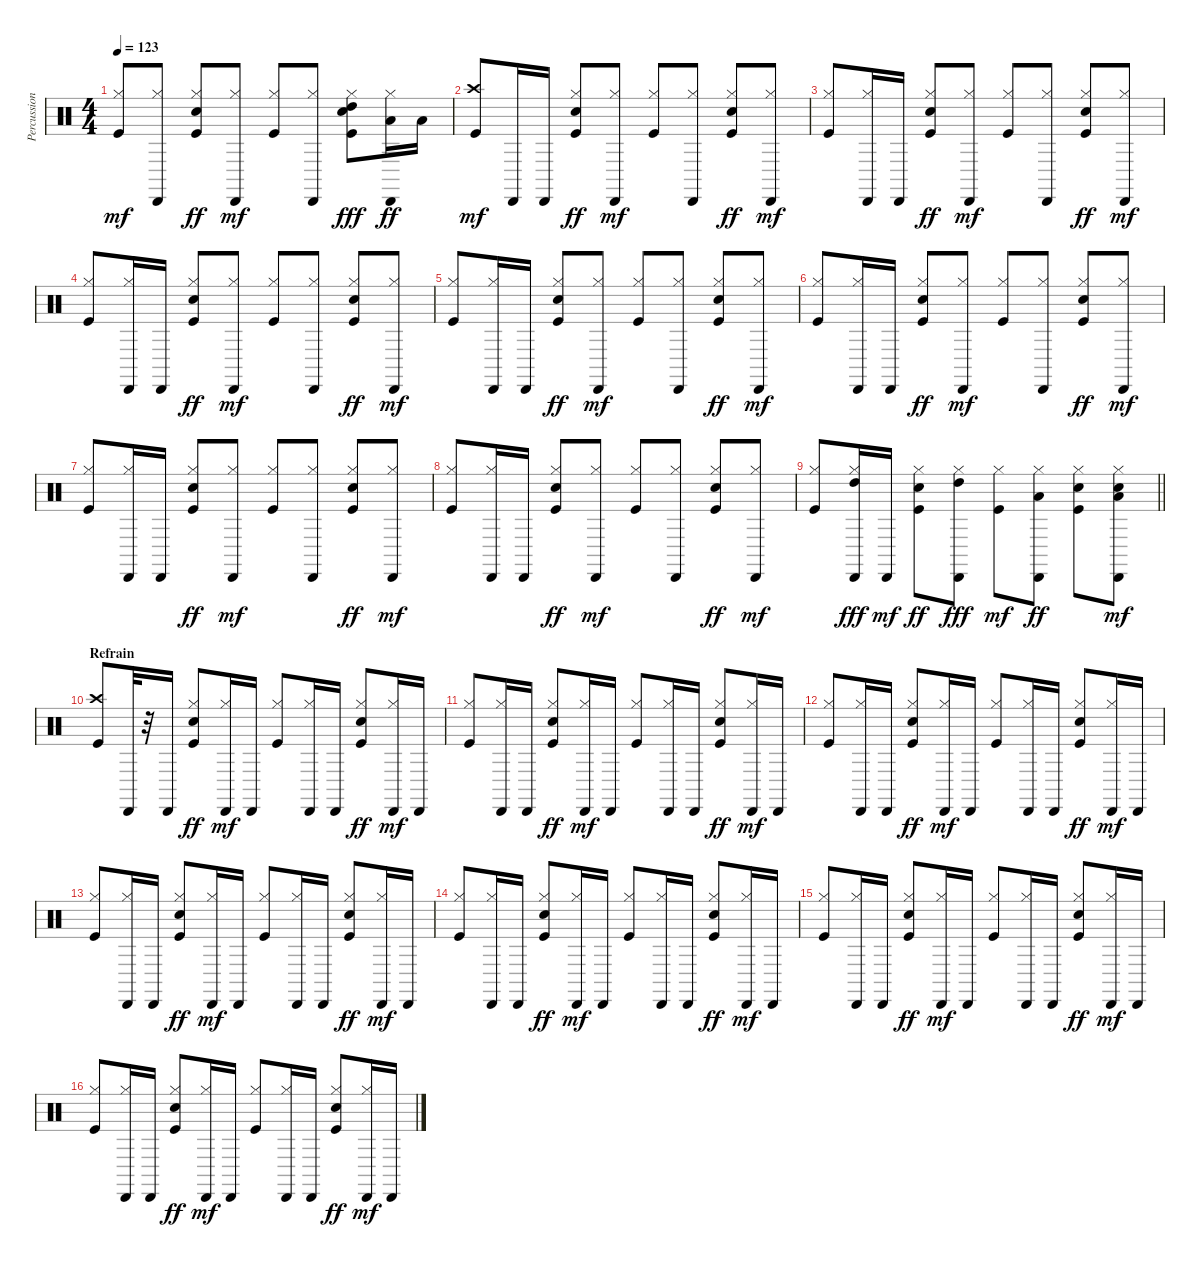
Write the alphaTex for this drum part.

\track ("Percussions" "Percussion") {instrument percussion}
\staff {score}
\articulation defaults
\ts (4 4)
\tempo 123
\clef neutral
\ks c
("Kick (hit)" "Hi-Hat (closed)").8{dy mf} ("Hi-Hat (closed)" "Cabasa (hit)").8 ("Kick (hit)" "Snare (hit) 2" "Hi-Hat (closed)").8{dy ff} ("Hi-Hat (closed)" "Cabasa (hit)").8{dy mf} ("Kick (hit)" "Hi-Hat (closed)").8 ("Hi-Hat (closed)" "Cabasa (hit)").8 ("Kick (hit)" "Snare (hit) 2" "Hi-Hat (closed)" "High Tom (hit)").8{dy fff} ("Hi-Hat (closed)" "Cabasa (hit)" "Low Tom (hit)").16{dy ff} "Low Tom (hit)".16 |
("Kick (hit)" "Crash high (hit)").8{dy mf} "Cabasa (hit)".16 "Cabasa (hit)".16 ("Kick (hit)" "Snare (hit) 2" "Hi-Hat (closed)").8{dy ff} ("Hi-Hat (closed)" "Cabasa (hit)").8{dy mf} ("Kick (hit)" "Hi-Hat (closed)").8 ("Hi-Hat (closed)" "Cabasa (hit)").8 ("Kick (hit)" "Snare (hit) 2" "Hi-Hat (closed)").8{dy ff} ("Hi-Hat (closed)" "Cabasa (hit)").8{dy mf} |
("Kick (hit)" "Hi-Hat (closed)").8 ("Hi-Hat (closed)" "Cabasa (hit)").16 "Cabasa (hit)".16 ("Kick (hit)" "Snare (hit) 2" "Hi-Hat (closed)").8{dy ff} ("Hi-Hat (closed)" "Cabasa (hit)").8{dy mf} ("Kick (hit)" "Hi-Hat (closed)").8 ("Hi-Hat (closed)" "Cabasa (hit)").8 ("Kick (hit)" "Snare (hit) 2" "Hi-Hat (closed)").8{dy ff} ("Hi-Hat (closed)" "Cabasa (hit)").8{dy mf} |
("Kick (hit)" "Hi-Hat (closed)").8 ("Hi-Hat (closed)" "Cabasa (hit)").16 "Cabasa (hit)".16 ("Kick (hit)" "Snare (hit) 2" "Hi-Hat (closed)").8{dy ff} ("Hi-Hat (closed)" "Cabasa (hit)").8{dy mf} ("Kick (hit)" "Hi-Hat (closed)").8 ("Hi-Hat (closed)" "Cabasa (hit)").8 ("Kick (hit)" "Snare (hit) 2" "Hi-Hat (closed)").8{dy ff} ("Hi-Hat (closed)" "Cabasa (hit)").8{dy mf} |
("Kick (hit)" "Hi-Hat (closed)").8 ("Hi-Hat (closed)" "Cabasa (hit)").16 "Cabasa (hit)".16 ("Kick (hit)" "Snare (hit) 2" "Hi-Hat (closed)").8{dy ff} ("Hi-Hat (closed)" "Cabasa (hit)").8{dy mf} ("Kick (hit)" "Hi-Hat (closed)").8 ("Hi-Hat (closed)" "Cabasa (hit)").8 ("Kick (hit)" "Snare (hit) 2" "Hi-Hat (closed)").8{dy ff} ("Hi-Hat (closed)" "Cabasa (hit)").8{dy mf} |
("Kick (hit)" "Hi-Hat (closed)").8 ("Hi-Hat (closed)" "Cabasa (hit)").16 "Cabasa (hit)".16 ("Kick (hit)" "Snare (hit) 2" "Hi-Hat (closed)").8{dy ff} ("Hi-Hat (closed)" "Cabasa (hit)").8{dy mf} ("Kick (hit)" "Hi-Hat (closed)").8 ("Hi-Hat (closed)" "Cabasa (hit)").8 ("Kick (hit)" "Snare (hit) 2" "Hi-Hat (closed)").8{dy ff} ("Hi-Hat (closed)" "Cabasa (hit)").8{dy mf} |
("Kick (hit)" "Hi-Hat (closed)").8 ("Hi-Hat (closed)" "Cabasa (hit)").16 "Cabasa (hit)".16 ("Kick (hit)" "Snare (hit) 2" "Hi-Hat (closed)").8{dy ff} ("Hi-Hat (closed)" "Cabasa (hit)").8{dy mf} ("Kick (hit)" "Hi-Hat (closed)").8 ("Hi-Hat (closed)" "Cabasa (hit)").8 ("Kick (hit)" "Snare (hit) 2" "Hi-Hat (closed)").8{dy ff} ("Hi-Hat (closed)" "Cabasa (hit)").8{dy mf} |
("Kick (hit)" "Hi-Hat (closed)").8 ("Hi-Hat (closed)" "Cabasa (hit)").16 "Cabasa (hit)".16 ("Kick (hit)" "Snare (hit) 2" "Hi-Hat (closed)").8{dy ff} ("Hi-Hat (closed)" "Cabasa (hit)").8{dy mf} ("Kick (hit)" "Hi-Hat (closed)").8 ("Hi-Hat (closed)" "Cabasa (hit)").8 ("Kick (hit)" "Snare (hit) 2" "Hi-Hat (closed)").8{dy ff} ("Hi-Hat (closed)" "Cabasa (hit)").8{dy mf} |
\barLineRight lightlight
("Kick (hit)" "Hi-Hat (closed)").8 ("Hi-Hat (closed)" "Cabasa (hit)" "High Tom (hit)").16{dy fff} "Cabasa (hit)".16{dy mf} ("Kick (hit)" "Snare (hit) 2" "Hi-Hat (closed)").8{dy ff} ("Hi-Hat (closed)" "Cabasa (hit)" "High Tom (hit)").8{dy fff} ("Kick (hit)" "Hi-Hat (closed)").8{dy mf} ("Hi-Hat (closed)" "Cabasa (hit)" "Low Tom (hit)").8{dy ff} ("Kick (hit)" "Snare (hit) 2" "Hi-Hat (closed)").8 ("Hi-Hat (closed)" "Hand Clap (hit)" "Cabasa (hit)" "Low Floor Tom (hit)").8{dy mf} |
\section ("" "Refrain")
("Kick (hit)" "Crash high (hit)").8 "Cabasa (hit)".32 r.32 "Cabasa (hit)".16 ("Kick (hit)" "Snare (hit) 2" "Hi-Hat (closed)").8{dy ff} ("Hi-Hat (closed)" "Cabasa (hit)").16{dy mf} "Cabasa (hit)".16 ("Kick (hit)" "Hi-Hat (closed)").8 ("Hi-Hat (closed)" "Cabasa (hit)").16 "Cabasa (hit)".16 ("Kick (hit)" "Snare (hit) 2" "Hi-Hat (closed)").8{dy ff} ("Hi-Hat (closed)" "Cabasa (hit)").16{dy mf} "Cabasa (hit)".16 |
("Kick (hit)" "Hi-Hat (closed)").8 ("Hi-Hat (closed)" "Cabasa (hit)").16 "Cabasa (hit)".16 ("Kick (hit)" "Snare (hit) 2" "Hi-Hat (closed)").8{dy ff} ("Hi-Hat (closed)" "Cabasa (hit)").16{dy mf} "Cabasa (hit)".16 ("Kick (hit)" "Hi-Hat (closed)").8 ("Hi-Hat (closed)" "Cabasa (hit)").16 "Cabasa (hit)".16 ("Kick (hit)" "Snare (hit) 2" "Hi-Hat (closed)").8{dy ff} ("Hi-Hat (closed)" "Cabasa (hit)").16{dy mf} "Cabasa (hit)".16 |
("Kick (hit)" "Hi-Hat (closed)").8 ("Hi-Hat (closed)" "Cabasa (hit)").16 "Cabasa (hit)".16 ("Kick (hit)" "Snare (hit) 2" "Hi-Hat (closed)").8{dy ff} ("Hi-Hat (closed)" "Cabasa (hit)").16{dy mf} "Cabasa (hit)".16 ("Kick (hit)" "Hi-Hat (closed)").8 ("Hi-Hat (closed)" "Cabasa (hit)").16 "Cabasa (hit)".16 ("Kick (hit)" "Snare (hit) 2" "Hi-Hat (closed)").8{dy ff} ("Hi-Hat (closed)" "Cabasa (hit)").16{dy mf} "Cabasa (hit)".16 |
("Kick (hit)" "Hi-Hat (closed)").8 ("Hi-Hat (closed)" "Cabasa (hit)").16 "Cabasa (hit)".16 ("Kick (hit)" "Snare (hit) 2" "Hi-Hat (closed)").8{dy ff} ("Hi-Hat (closed)" "Cabasa (hit)").16{dy mf} "Cabasa (hit)".16 ("Kick (hit)" "Hi-Hat (closed)").8 ("Hi-Hat (closed)" "Cabasa (hit)").16 "Cabasa (hit)".16 ("Kick (hit)" "Snare (hit) 2" "Hi-Hat (closed)").8{dy ff} ("Hi-Hat (closed)" "Cabasa (hit)").16{dy mf} "Cabasa (hit)".16 |
("Kick (hit)" "Hi-Hat (closed)").8 ("Hi-Hat (closed)" "Cabasa (hit)").16 "Cabasa (hit)".16 ("Kick (hit)" "Snare (hit) 2" "Hi-Hat (closed)").8{dy ff} ("Hi-Hat (closed)" "Cabasa (hit)").16{dy mf} "Cabasa (hit)".16 ("Kick (hit)" "Hi-Hat (closed)").8 ("Hi-Hat (closed)" "Cabasa (hit)").16 "Cabasa (hit)".16 ("Kick (hit)" "Snare (hit) 2" "Hi-Hat (closed)").8{dy ff} ("Hi-Hat (closed)" "Cabasa (hit)").16{dy mf} "Cabasa (hit)".16 |
("Kick (hit)" "Hi-Hat (closed)").8 ("Hi-Hat (closed)" "Cabasa (hit)").16 "Cabasa (hit)".16 ("Kick (hit)" "Snare (hit) 2" "Hi-Hat (closed)").8{dy ff} ("Hi-Hat (closed)" "Cabasa (hit)").16{dy mf} "Cabasa (hit)".16 ("Kick (hit)" "Hi-Hat (closed)").8 ("Hi-Hat (closed)" "Cabasa (hit)").16 "Cabasa (hit)".16 ("Kick (hit)" "Snare (hit) 2" "Hi-Hat (closed)").8{dy ff} ("Hi-Hat (closed)" "Cabasa (hit)").16{dy mf} "Cabasa (hit)".16 |
("Kick (hit)" "Hi-Hat (closed)").8 ("Hi-Hat (closed)" "Cabasa (hit)").16 "Cabasa (hit)".16 ("Kick (hit)" "Snare (hit) 2" "Hi-Hat (closed)").8{dy ff} ("Hi-Hat (closed)" "Cabasa (hit)").16{dy mf} "Cabasa (hit)".16 ("Kick (hit)" "Hi-Hat (closed)").8 ("Hi-Hat (closed)" "Cabasa (hit)").16 "Cabasa (hit)".16 ("Kick (hit)" "Snare (hit) 2" "Hi-Hat (closed)").8{dy ff} ("Hi-Hat (closed)" "Cabasa (hit)").16{dy mf} "Cabasa (hit)".16
